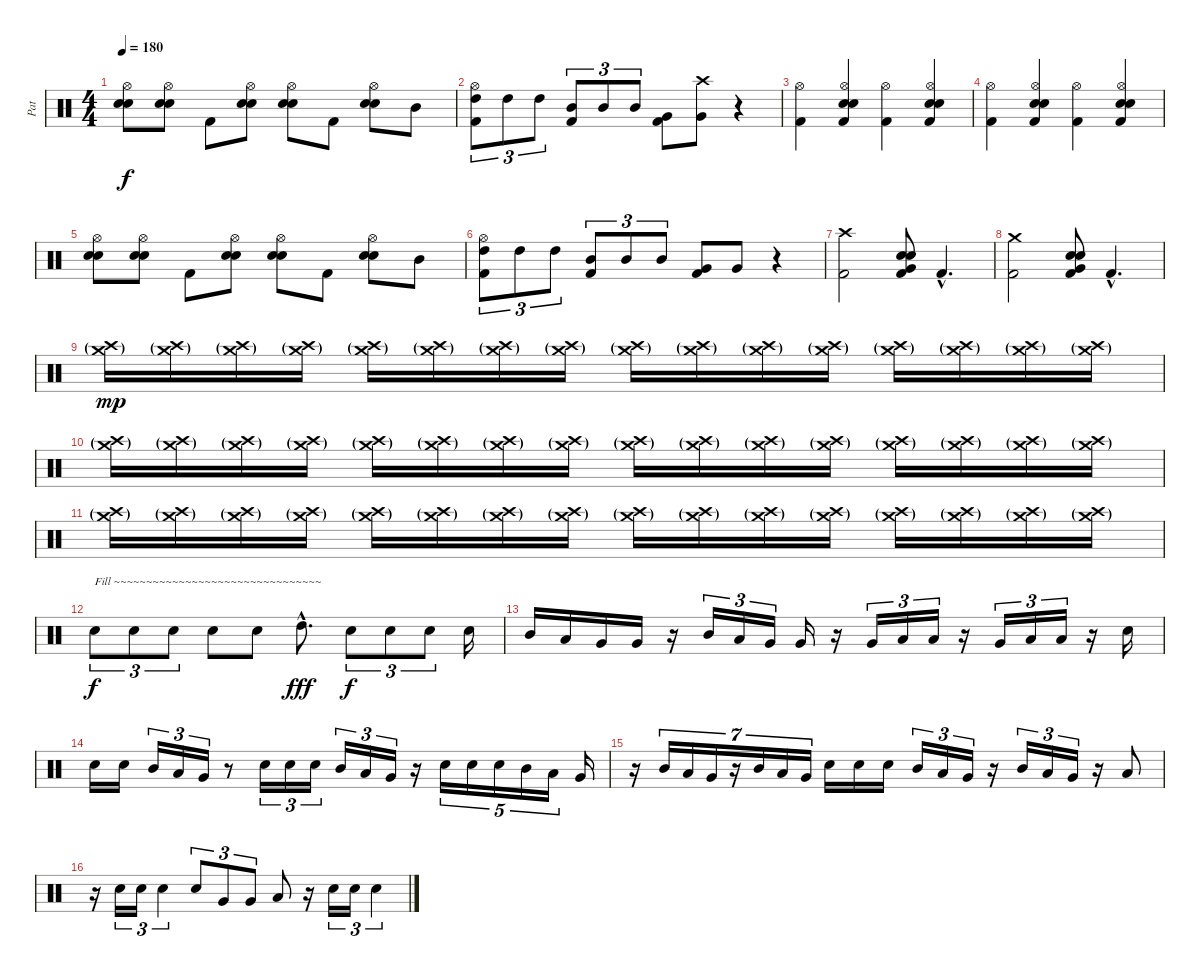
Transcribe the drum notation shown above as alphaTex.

\track ("Pat" "Pat") {instrument percussion}
\staff {score}
\articulation defaults
\ts (4 4)
\tempo 180
\clef neutral
\ks c
("Snare (hit) 2" "Electric Snare (hit)" "Hi-Hat (open)").8{dy f} ("Snare (hit) 2" "Electric Snare (hit)" "Hi-Hat (open)").8 "Kick (hit) 2".8 ("Snare (hit) 2" "Electric Snare (hit)" "Hi-Hat (open)").8 ("Snare (hit) 2" "Electric Snare (hit)" "Hi-Hat (open)").8 "Kick (hit) 2".8 ("Snare (hit) 2" "Electric Snare (hit)" "Hi-Hat (open)").8 "Mid Tom (hit)".8 |
("High Tom (hit)" "Hi-Hat (open)" "Kick (hit) 2").8{tu (3 2)} "High Tom (hit)".8{tu (3 2)} "High Tom (hit)".8{tu (3 2)} ("Mid Tom (hit)" "Kick (hit) 2").8{tu (3 2)} "Mid Tom (hit)".8{tu (3 2)} "Mid Tom (hit)".8{tu (3 2)} ("Very Low Tom (hit)" "Kick (hit) 2").8 ("Crash high (hit)" "Very Low Tom (hit)").8 r.4 |
("Hi-Hat (open)" "Kick (hit) 2").4 ("Hi-Hat (open)" "Snare (hit) 2" "Electric Snare (hit)" "Kick (hit) 2").4 ("Hi-Hat (open)" "Kick (hit) 2").4 ("Hi-Hat (open)" "Snare (hit) 2" "Electric Snare (hit)" "Kick (hit) 2").4 |
("Hi-Hat (open)" "Kick (hit) 2").4 ("Hi-Hat (open)" "Snare (hit) 2" "Electric Snare (hit)" "Kick (hit) 2").4 ("Hi-Hat (open)" "Kick (hit) 2").4 ("Hi-Hat (open)" "Snare (hit) 2" "Electric Snare (hit)" "Kick (hit) 2").4 |
("Snare (hit) 2" "Electric Snare (hit)" "Hi-Hat (open)").8 ("Snare (hit) 2" "Electric Snare (hit)" "Hi-Hat (open)").8 "Kick (hit) 2".8 ("Snare (hit) 2" "Electric Snare (hit)" "Hi-Hat (open)").8 ("Snare (hit) 2" "Electric Snare (hit)" "Hi-Hat (open)").8 "Kick (hit) 2".8 ("Snare (hit) 2" "Electric Snare (hit)" "Hi-Hat (open)").8 "Mid Tom (hit)".8 |
("High Tom (hit)" "Hi-Hat (open)" "Kick (hit) 2").8{tu (3 2)} "High Tom (hit)".8{tu (3 2)} "High Tom (hit)".8{tu (3 2)} ("Mid Tom (hit)" "Kick (hit) 2").8{tu (3 2)} "Mid Tom (hit)".8{tu (3 2)} "Mid Tom (hit)".8{tu (3 2)} ("Very Low Tom (hit)" "Kick (hit) 2").8 "Very Low Tom (hit)".8 r.4 |
("Crash high (hit)" "Kick (hit) 2").2 ("Snare (hit) 2" "Electric Snare (hit)" "Very Low Tom (hit)" "Kick (hit) 2").8 "Kick (hit) 2"{hac}.4{d} |
("Crash medium (hit)" "Kick (hit) 2").2 ("Snare (hit) 2" "Electric Snare (hit)" "Very Low Tom (hit)" "Kick (hit) 2").8 "Kick (hit) 2"{hac}.4{d} |
("Crash high (hit)"{g} "Crash medium (hit)"{g}).16{dy mp} ("Crash high (hit)"{g} "Crash medium (hit)"{g}).16 ("Crash high (hit)"{g} "Crash medium (hit)"{g}).16 ("Crash high (hit)"{g} "Crash medium (hit)"{g}).16 ("Crash high (hit)"{g} "Crash medium (hit)"{g}).16 ("Crash high (hit)"{g} "Crash medium (hit)"{g}).16 ("Crash high (hit)"{g} "Crash medium (hit)"{g}).16 ("Crash high (hit)"{g} "Crash medium (hit)"{g}).16 ("Crash high (hit)"{g} "Crash medium (hit)"{g}).16 ("Crash high (hit)"{g} "Crash medium (hit)"{g}).16 ("Crash high (hit)"{g} "Crash medium (hit)"{g}).16 ("Crash high (hit)"{g} "Crash medium (hit)"{g}).16 ("Crash high (hit)"{g} "Crash medium (hit)"{g}).16 ("Crash high (hit)"{g} "Crash medium (hit)"{g}).16 ("Crash high (hit)"{g} "Crash medium (hit)"{g}).16 ("Crash high (hit)"{g} "Crash medium (hit)"{g}).16 |
("Crash high (hit)"{g} "Crash medium (hit)"{g}).16 ("Crash high (hit)"{g} "Crash medium (hit)"{g}).16 ("Crash high (hit)"{g} "Crash medium (hit)"{g}).16 ("Crash high (hit)"{g} "Crash medium (hit)"{g}).16 ("Crash high (hit)"{g} "Crash medium (hit)"{g}).16 ("Crash high (hit)"{g} "Crash medium (hit)"{g}).16 ("Crash high (hit)"{g} "Crash medium (hit)"{g}).16 ("Crash high (hit)"{g} "Crash medium (hit)"{g}).16 ("Crash high (hit)"{g} "Crash medium (hit)"{g}).16 ("Crash high (hit)"{g} "Crash medium (hit)"{g}).16 ("Crash high (hit)"{g} "Crash medium (hit)"{g}).16 ("Crash high (hit)"{g} "Crash medium (hit)"{g}).16 ("Crash high (hit)"{g} "Crash medium (hit)"{g}).16 ("Crash high (hit)"{g} "Crash medium (hit)"{g}).16 ("Crash high (hit)"{g} "Crash medium (hit)"{g}).16 ("Crash high (hit)"{g} "Crash medium (hit)"{g}).16 |
("Crash high (hit)"{g} "Crash medium (hit)"{g}).16 ("Crash high (hit)"{g} "Crash medium (hit)"{g}).16 ("Crash high (hit)"{g} "Crash medium (hit)"{g}).16 ("Crash high (hit)"{g} "Crash medium (hit)"{g}).16 ("Crash high (hit)"{g} "Crash medium (hit)"{g}).16 ("Crash high (hit)"{g} "Crash medium (hit)"{g}).16 ("Crash high (hit)"{g} "Crash medium (hit)"{g}).16 ("Crash high (hit)"{g} "Crash medium (hit)"{g}).16 ("Crash high (hit)"{g} "Crash medium (hit)"{g}).16 ("Crash high (hit)"{g} "Crash medium (hit)"{g}).16 ("Crash high (hit)"{g} "Crash medium (hit)"{g}).16 ("Crash high (hit)"{g} "Crash medium (hit)"{g}).16 ("Crash high (hit)"{g} "Crash medium (hit)"{g}).16 ("Crash high (hit)"{g} "Crash medium (hit)"{g}).16 ("Crash high (hit)"{g} "Crash medium (hit)"{g}).16 ("Crash high (hit)"{g} "Crash medium (hit)"{g}).16 |
"Electric Snare (hit)".8{tu (3 2) txt "Fill ~~~~~~~~~~~~~~~~~~~~~~~~~~~~~~~~" dy f} "Electric Snare (hit)".8{tu (3 2)} "Electric Snare (hit)".8{tu (3 2)} "Electric Snare (hit)".8 "Electric Snare (hit)".8 "High Tom (hit)"{hac}.8{d dy fff} "Electric Snare (hit)".8{tu (3 2) dy f} "Electric Snare (hit)".8{tu (3 2)} "Electric Snare (hit)".8{tu (3 2)} "Electric Snare (hit)".16 |
"Mid Tom (hit)".16 "Low Tom (hit)".16 "Very Low Tom (hit)".16 "Very Low Tom (hit)".16 r.16 "Mid Tom (hit)".16{tu (3 2)} "Low Tom (hit)".16{tu (3 2)} "Very Low Tom (hit)".16{tu (3 2)} "Very Low Tom (hit)".16 r.16 "Very Low Tom (hit)".16{tu (3 2)} "Low Floor Tom (hit)".16{tu (3 2)} "Low Floor Tom (hit)".16{tu (3 2)} r.16 "Very Low Tom (hit)".16{tu (3 2)} "Low Floor Tom (hit)".16{tu (3 2)} "Low Floor Tom (hit)".16{tu (3 2)} r.16 "Electric Snare (hit)".16 |
"Electric Snare (hit)".16 "Electric Snare (hit)".16 "Mid Tom (hit)".16{tu (3 2)} "Low Tom (hit)".16{tu (3 2)} "Very Low Tom (hit)".16{tu (3 2)} r.8 "Electric Snare (hit)".16{tu (3 2)} "Electric Snare (hit)".16{tu (3 2)} "Electric Snare (hit)".16{tu (3 2)} "Mid Tom (hit)".16{tu (3 2)} "Low Tom (hit)".16{tu (3 2)} "Very Low Tom (hit)".16{tu (3 2)} r.16 "Electric Snare (hit)".16{tu (5 4)} "Electric Snare (hit)".16{tu (5 4)} "Electric Snare (hit)".16{tu (5 4)} "Mid Tom (hit)".16{tu (5 4)} "Low Tom (hit)".16{tu (5 4)} "Very Low Tom (hit)".16 |
r.16 "Mid Tom (hit)".16{tu (7 4)} "Low Tom (hit)".16{tu (7 4)} "Very Low Tom (hit)".16{tu (7 4)} r.16{tu (7 4)} "Mid Tom (hit)".16{tu (7 4)} "Low Tom (hit)".16{tu (7 4)} "Very Low Tom (hit)".16{tu (7 4)} "Electric Snare (hit)".16 "Electric Snare (hit)".16 "Electric Snare (hit)".16 "Mid Tom (hit)".16{tu (3 2)} "Low Tom (hit)".16{tu (3 2)} "Very Low Tom (hit)".16{tu (3 2)} r.16 "Mid Tom (hit)".16{tu (3 2)} "Low Tom (hit)".16{tu (3 2)} "Very Low Tom (hit)".16{tu (3 2)} r.16 "Low Tom (hit)".8 |
r.16 "Electric Snare (hit)".16{tu (3 2)} "Electric Snare (hit)".16{tu (3 2)} "Electric Snare (hit)".4{tu (3 2)} "Electric Snare (hit)".8{tu (3 2)} "Very Low Tom (hit)".8{tu (3 2)} "Very Low Tom (hit)".8{tu (3 2)} "Low Tom (hit)".8 r.16 "Electric Snare (hit)".16{tu (3 2)} "Electric Snare (hit)".16{tu (3 2)} "Electric Snare (hit)".4{tu (3 2)}
